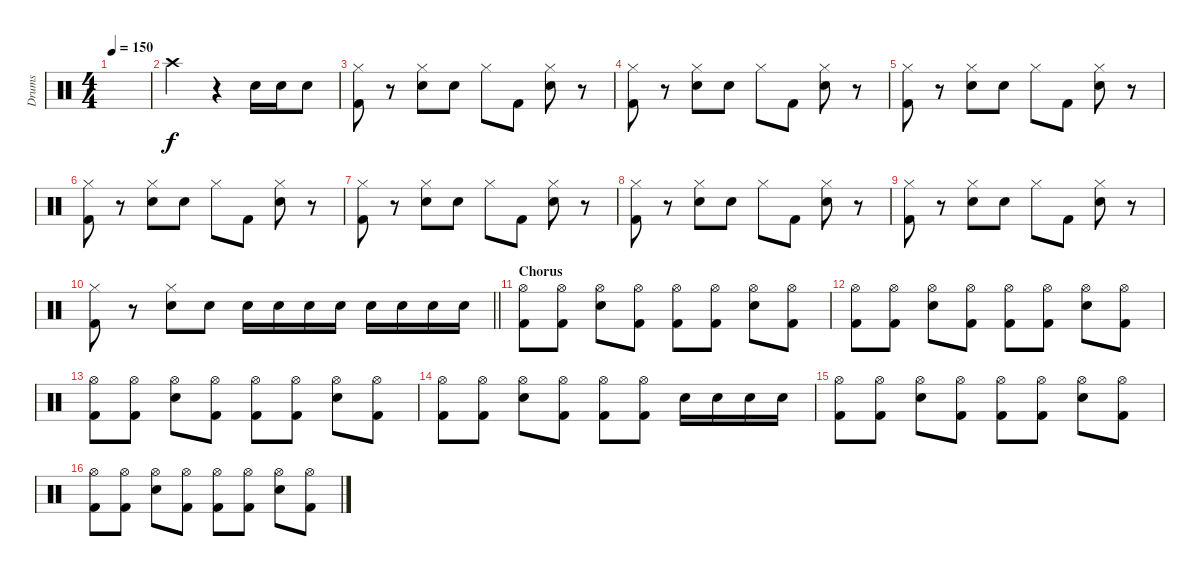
\track ("Drums" "Drums") {instrument percussion}
\staff {score}
\articulation defaults
\ts (4 4)
\tempo 150
\clef neutral
\ks c
|
"Crash high (hit)".2 r.4 "Snare (hit) 2".16 "Snare (hit) 2".16 "Snare (hit) 2".8 |
("Hi-Hat (closed)" "Kick (hit) 2").8 r.8 ("Snare (hit) 2" "Hi-Hat (closed)").8 "Snare (hit) 2".8 "Hi-Hat (closed)".8 "Kick (hit) 2".8 ("Snare (hit) 2" "Hi-Hat (closed)").8 r.8 |
("Hi-Hat (closed)" "Kick (hit) 2").8 r.8 ("Snare (hit) 2" "Hi-Hat (closed)").8 "Snare (hit) 2".8 "Hi-Hat (closed)".8 "Kick (hit) 2".8 ("Snare (hit) 2" "Hi-Hat (closed)").8 r.8 |
("Hi-Hat (closed)" "Kick (hit) 2").8 r.8 ("Snare (hit) 2" "Hi-Hat (closed)").8 "Snare (hit) 2".8 "Hi-Hat (closed)".8 "Kick (hit) 2".8 ("Snare (hit) 2" "Hi-Hat (closed)").8 r.8 |
("Hi-Hat (closed)" "Kick (hit) 2").8 r.8 ("Snare (hit) 2" "Hi-Hat (closed)").8 "Snare (hit) 2".8 "Hi-Hat (closed)".8 "Kick (hit) 2".8 ("Snare (hit) 2" "Hi-Hat (closed)").8 r.8 |
("Hi-Hat (closed)" "Kick (hit) 2").8 r.8 ("Snare (hit) 2" "Hi-Hat (closed)").8 "Snare (hit) 2".8 "Hi-Hat (closed)".8 "Kick (hit) 2".8 ("Snare (hit) 2" "Hi-Hat (closed)").8 r.8 |
("Hi-Hat (closed)" "Kick (hit) 2").8 r.8 ("Snare (hit) 2" "Hi-Hat (closed)").8 "Snare (hit) 2".8 "Hi-Hat (closed)".8 "Kick (hit) 2".8 ("Snare (hit) 2" "Hi-Hat (closed)").8 r.8 |
("Hi-Hat (closed)" "Kick (hit) 2").8 r.8 ("Snare (hit) 2" "Hi-Hat (closed)").8 "Snare (hit) 2".8 "Hi-Hat (closed)".8 "Kick (hit) 2".8 ("Snare (hit) 2" "Hi-Hat (closed)").8 r.8 |
\barLineRight lightlight
("Hi-Hat (closed)" "Kick (hit) 2").8 r.8 ("Snare (hit) 2" "Hi-Hat (closed)").8 "Snare (hit) 2".8 "Snare (hit) 2".16 "Snare (hit) 2".16 "Snare (hit) 2".16 "Snare (hit) 2".16 "Snare (hit) 2".16 "Snare (hit) 2".16 "Snare (hit) 2".16 "Snare (hit) 2".16 |
\section ("" "Chorus")
("Hi-Hat (open)" "Kick (hit) 2").8 ("Hi-Hat (open)" "Kick (hit) 2").8 ("Snare (hit) 2" "Hi-Hat (open)").8 ("Hi-Hat (open)" "Kick (hit) 2").8 ("Hi-Hat (open)" "Kick (hit) 2").8 ("Hi-Hat (open)" "Kick (hit) 2").8 ("Snare (hit) 2" "Hi-Hat (open)").8 ("Hi-Hat (open)" "Kick (hit) 2").8 |
("Hi-Hat (open)" "Kick (hit) 2").8 ("Hi-Hat (open)" "Kick (hit) 2").8 ("Snare (hit) 2" "Hi-Hat (open)").8 ("Hi-Hat (open)" "Kick (hit) 2").8 ("Hi-Hat (open)" "Kick (hit) 2").8 ("Hi-Hat (open)" "Kick (hit) 2").8 ("Snare (hit) 2" "Hi-Hat (open)").8 ("Hi-Hat (open)" "Kick (hit) 2").8 |
("Hi-Hat (open)" "Kick (hit) 2").8 ("Hi-Hat (open)" "Kick (hit) 2").8 ("Snare (hit) 2" "Hi-Hat (open)").8 ("Hi-Hat (open)" "Kick (hit) 2").8 ("Hi-Hat (open)" "Kick (hit) 2").8 ("Hi-Hat (open)" "Kick (hit) 2").8 ("Snare (hit) 2" "Hi-Hat (open)").8 ("Hi-Hat (open)" "Kick (hit) 2").8 |
("Hi-Hat (open)" "Kick (hit) 2").8 ("Hi-Hat (open)" "Kick (hit) 2").8 ("Snare (hit) 2" "Hi-Hat (open)").8 ("Hi-Hat (open)" "Kick (hit) 2").8 ("Hi-Hat (open)" "Kick (hit) 2").8 ("Hi-Hat (open)" "Kick (hit) 2").8 "Snare (hit) 2".16 "Snare (hit) 2".16 "Snare (hit) 2".16 "Snare (hit) 2".16 |
("Hi-Hat (open)" "Kick (hit) 2").8 ("Hi-Hat (open)" "Kick (hit) 2").8 ("Snare (hit) 2" "Hi-Hat (open)").8 ("Hi-Hat (open)" "Kick (hit) 2").8 ("Hi-Hat (open)" "Kick (hit) 2").8 ("Hi-Hat (open)" "Kick (hit) 2").8 ("Snare (hit) 2" "Hi-Hat (open)").8 ("Hi-Hat (open)" "Kick (hit) 2").8 |
("Hi-Hat (open)" "Kick (hit) 2").8 ("Hi-Hat (open)" "Kick (hit) 2").8 ("Snare (hit) 2" "Hi-Hat (open)").8 ("Hi-Hat (open)" "Kick (hit) 2").8 ("Hi-Hat (open)" "Kick (hit) 2").8 ("Hi-Hat (open)" "Kick (hit) 2").8 ("Snare (hit) 2" "Hi-Hat (open)").8 ("Hi-Hat (open)" "Kick (hit) 2").8
